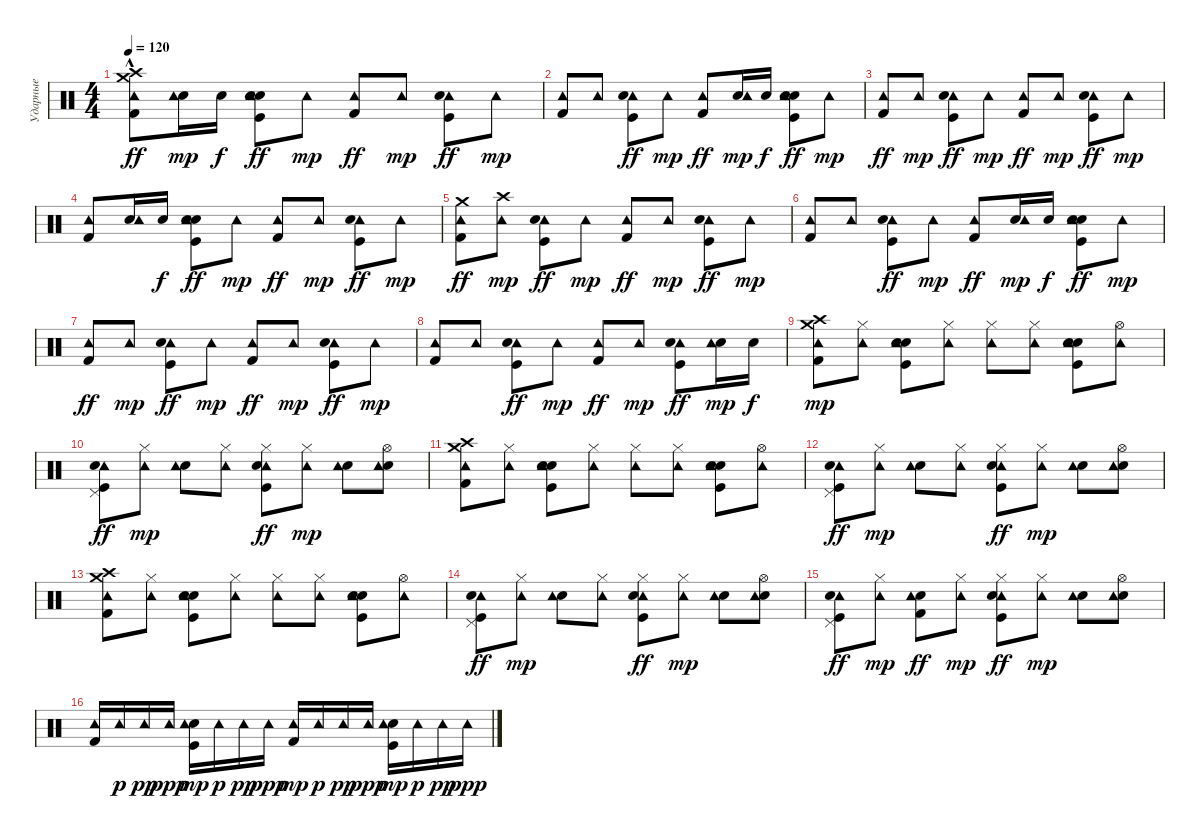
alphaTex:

\track ("Ударные" "Ударные") {instrument percussion}
\staff {score}
\articulation defaults
\ts (4 4)
\tempo 120
\clef neutral
\ks c
("Crash medium (hit)"{hac} "Crash high (hit)"{hac} "Tambourine (hit)" "Kick (hit) 2").8{dy ff} ("Electric Snare (hit)" "Tambourine (hit)").16{dy mp} "Electric Snare (hit)".16{dy f} ("Electric Snare (hit)" "Tambourine (hit)" "Kick (hit)" "Snare (hit) 2").8{dy ff} "Tambourine (hit)".8{dy mp} ("Tambourine (hit)" "Kick (hit) 2").8{dy ff} "Tambourine (hit)".8{dy mp} ("Tambourine (hit)" "Kick (hit)" "Snare (hit) 2").8{dy ff} "Tambourine (hit)".8{dy mp} |
("Kick (hit) 2" "Tambourine (hit)").8 "Tambourine (hit)".8 ("Tambourine (hit)" "Kick (hit)" "Snare (hit) 2").8{dy ff} "Tambourine (hit)".8{dy mp} ("Tambourine (hit)" "Kick (hit) 2").8{dy ff} ("Electric Snare (hit)" "Tambourine (hit)").16{dy mp} "Electric Snare (hit)".16{dy f} ("Electric Snare (hit)" "Tambourine (hit)" "Kick (hit)" "Snare (hit) 2").8{dy ff} "Tambourine (hit)".8{dy mp} |
("Tambourine (hit)" "Kick (hit) 2").8{dy ff} "Tambourine (hit)".8{dy mp} ("Tambourine (hit)" "Kick (hit)" "Snare (hit) 2").8{dy ff} "Tambourine (hit)".8{dy mp} ("Tambourine (hit)" "Kick (hit) 2").8{dy ff} "Tambourine (hit)".8{dy mp} ("Tambourine (hit)" "Kick (hit)" "Snare (hit) 2").8{dy ff} "Tambourine (hit)".8{dy mp} |
("Kick (hit) 2" "Tambourine (hit)").8 ("Electric Snare (hit)" "Tambourine (hit)").16 "Electric Snare (hit)".16{dy f} ("Electric Snare (hit)" "Tambourine (hit)" "Kick (hit)" "Snare (hit) 2").8{dy ff} "Tambourine (hit)".8{dy mp} ("Tambourine (hit)" "Kick (hit) 2").8{dy ff} "Tambourine (hit)".8{dy mp} ("Tambourine (hit)" "Kick (hit)" "Snare (hit) 2").8{dy ff} "Tambourine (hit)".8{dy mp} |
("Crash medium (hit)" "Tambourine (hit)" "Kick (hit) 2").8{dy ff} ("Crash high (hit)" "Tambourine (hit)").8{dy mp} ("Tambourine (hit)" "Kick (hit)" "Snare (hit) 2").8{dy ff} "Tambourine (hit)".8{dy mp} ("Tambourine (hit)" "Kick (hit) 2").8{dy ff} "Tambourine (hit)".8{dy mp} ("Tambourine (hit)" "Kick (hit)" "Snare (hit) 2").8{dy ff} "Tambourine (hit)".8{dy mp} |
("Kick (hit) 2" "Tambourine (hit)").8 "Tambourine (hit)".8 ("Tambourine (hit)" "Kick (hit)" "Snare (hit) 2").8{dy ff} "Tambourine (hit)".8{dy mp} ("Tambourine (hit)" "Kick (hit) 2").8{dy ff} ("Electric Snare (hit)" "Tambourine (hit)").16{dy mp} "Electric Snare (hit)".16{dy f} ("Electric Snare (hit)" "Tambourine (hit)" "Kick (hit)" "Snare (hit) 2").8{dy ff} "Tambourine (hit)".8{dy mp} |
("Tambourine (hit)" "Kick (hit) 2").8{dy ff} "Tambourine (hit)".8{dy mp} ("Tambourine (hit)" "Kick (hit)" "Snare (hit) 2").8{dy ff} "Tambourine (hit)".8{dy mp} ("Tambourine (hit)" "Kick (hit) 2").8{dy ff} "Tambourine (hit)".8{dy mp} ("Tambourine (hit)" "Kick (hit)" "Snare (hit) 2").8{dy ff} "Tambourine (hit)".8{dy mp} |
("Kick (hit) 2" "Tambourine (hit)").8 "Tambourine (hit)".8 ("Tambourine (hit)" "Kick (hit)" "Snare (hit) 2").8{dy ff} "Tambourine (hit)".8{dy mp} ("Tambourine (hit)" "Kick (hit) 2").8{dy ff} "Tambourine (hit)".8{dy mp} ("Tambourine (hit)" "Kick (hit)" "Snare (hit) 2").8{dy ff} ("Electric Snare (hit)" "Tambourine (hit)").16{dy mp} "Electric Snare (hit)".16{dy f} |
("Crash high (hit)" "Crash medium (hit)" "Kick (hit) 2" "Tambourine (hit)").8{dy mp} ("Hi-Hat (closed)" "Tambourine (hit)").8 ("Electric Snare (hit)" "Kick (hit)" "Snare (hit) 2" "Tambourine (hit)").8 ("Hi-Hat (closed)" "Tambourine (hit)").8 ("Hi-Hat (closed)" "Tambourine (hit)").8 ("Hi-Hat (closed)" "Tambourine (hit)").8 ("Electric Snare (hit)" "Kick (hit)" "Snare (hit) 2" "Tambourine (hit)").8 ("Hi-Hat (open)" "Tambourine (hit)").8 |
("Pedal Hi-Hat (hit)" "Tambourine (hit)" "Kick (hit)" "Snare (hit) 2").8{dy ff} ("Hi-Hat (closed)" "Tambourine (hit)").8{dy mp} ("Electric Snare (hit)" "Tambourine (hit)").8 ("Hi-Hat (closed)" "Tambourine (hit)").8 ("Hi-Hat (closed)" "Tambourine (hit)" "Kick (hit)" "Snare (hit) 2").8{dy ff} ("Hi-Hat (closed)" "Tambourine (hit)").8{dy mp} ("Electric Snare (hit)" "Tambourine (hit)").8 ("Electric Snare (hit)" "Hi-Hat (open)" "Tambourine (hit)").8 |
("Crash high (hit)" "Crash medium (hit)" "Kick (hit) 2" "Tambourine (hit)").8 ("Hi-Hat (closed)" "Tambourine (hit)").8 ("Electric Snare (hit)" "Kick (hit)" "Snare (hit) 2" "Tambourine (hit)").8 ("Hi-Hat (closed)" "Tambourine (hit)").8 ("Hi-Hat (closed)" "Tambourine (hit)").8 ("Hi-Hat (closed)" "Tambourine (hit)").8 ("Electric Snare (hit)" "Kick (hit)" "Snare (hit) 2" "Tambourine (hit)").8 ("Hi-Hat (open)" "Tambourine (hit)").8 |
("Pedal Hi-Hat (hit)" "Tambourine (hit)" "Kick (hit)" "Snare (hit) 2").8{dy ff} ("Hi-Hat (closed)" "Tambourine (hit)").8{dy mp} ("Electric Snare (hit)" "Tambourine (hit)").8 ("Hi-Hat (closed)" "Tambourine (hit)").8 ("Hi-Hat (closed)" "Tambourine (hit)" "Kick (hit)" "Snare (hit) 2").8{dy ff} ("Hi-Hat (closed)" "Tambourine (hit)").8{dy mp} ("Electric Snare (hit)" "Tambourine (hit)").8 ("Electric Snare (hit)" "Hi-Hat (open)" "Tambourine (hit)").8 |
("Crash high (hit)" "Crash medium (hit)" "Kick (hit) 2" "Tambourine (hit)").8 ("Hi-Hat (closed)" "Tambourine (hit)").8 ("Electric Snare (hit)" "Kick (hit)" "Snare (hit) 2" "Tambourine (hit)").8 ("Hi-Hat (closed)" "Tambourine (hit)").8 ("Hi-Hat (closed)" "Tambourine (hit)").8 ("Hi-Hat (closed)" "Tambourine (hit)").8 ("Electric Snare (hit)" "Kick (hit)" "Snare (hit) 2" "Tambourine (hit)").8 ("Hi-Hat (open)" "Tambourine (hit)").8 |
("Pedal Hi-Hat (hit)" "Tambourine (hit)" "Kick (hit)" "Snare (hit) 2").8{dy ff} ("Hi-Hat (closed)" "Tambourine (hit)").8{dy mp} ("Electric Snare (hit)" "Tambourine (hit)").8 ("Hi-Hat (closed)" "Tambourine (hit)").8 ("Hi-Hat (closed)" "Tambourine (hit)" "Kick (hit)" "Snare (hit) 2").8{dy ff} ("Hi-Hat (closed)" "Tambourine (hit)").8{dy mp} ("Electric Snare (hit)" "Tambourine (hit)").8 ("Electric Snare (hit)" "Hi-Hat (open)" "Tambourine (hit)").8 |
("Pedal Hi-Hat (hit)" "Tambourine (hit)" "Kick (hit)" "Snare (hit) 2").8{dy ff} ("Hi-Hat (closed)" "Tambourine (hit)").8{dy mp} ("Electric Snare (hit)" "Tambourine (hit)" "Kick (hit) 2").8{dy ff} ("Hi-Hat (closed)" "Tambourine (hit)").8{dy mp} ("Hi-Hat (closed)" "Tambourine (hit)" "Kick (hit)" "Snare (hit) 2").8{dy ff} ("Hi-Hat (closed)" "Tambourine (hit)").8{dy mp} ("Electric Snare (hit)" "Tambourine (hit)").8 ("Electric Snare (hit)" "Hi-Hat (open)" "Tambourine (hit)").8 |
("Kick (hit) 2" "Tambourine (hit)").16 "Tambourine (hit)".16{dy p} "Tambourine (hit)".16{dy pp} "Tambourine (hit)".16{dy ppp} ("Kick (hit)" "Snare (hit) 2" "Tambourine (hit)").16{dy mp} "Tambourine (hit)".16{dy p} "Tambourine (hit)".16{dy pp} "Tambourine (hit)".16{dy ppp} ("Kick (hit) 2" "Tambourine (hit)").16{dy mp} "Tambourine (hit)".16{dy p} "Tambourine (hit)".16{dy pp} "Tambourine (hit)".16{dy ppp} ("Kick (hit)" "Snare (hit) 2" "Tambourine (hit)").16{dy mp} "Tambourine (hit)".16{dy p} "Tambourine (hit)".16{dy pp} "Tambourine (hit)".16{dy ppp}
